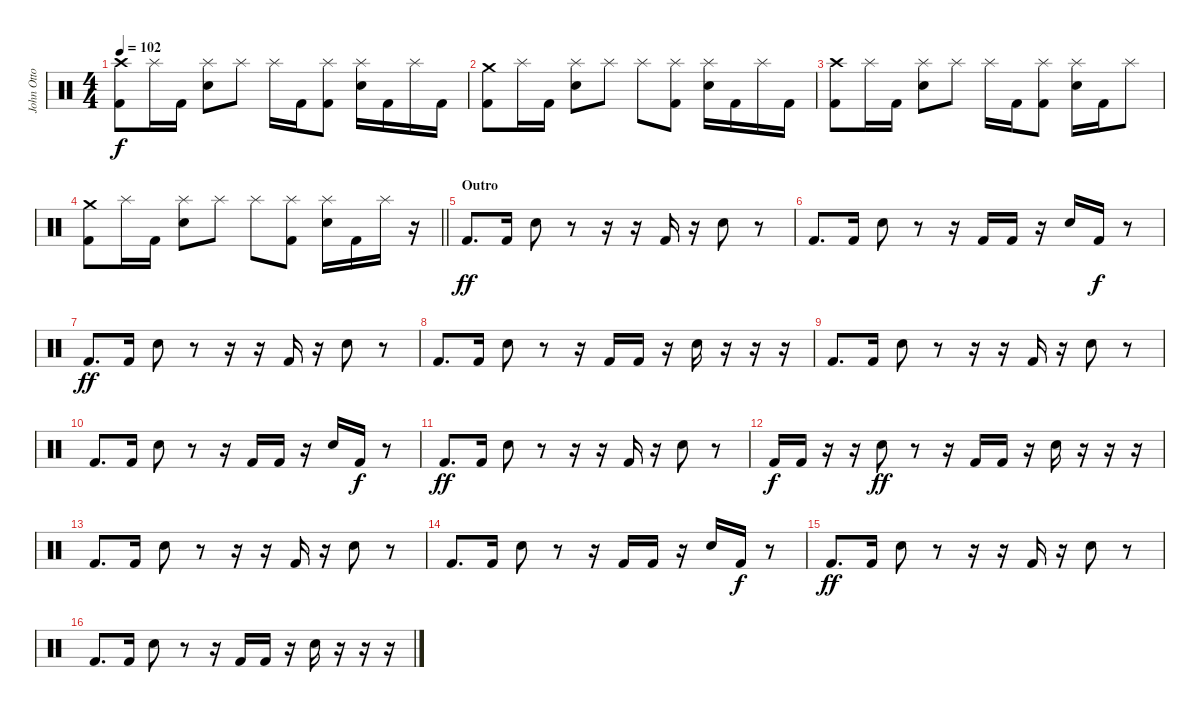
\track ("John Otto (Drums)" "John Otto ") {instrument percussion}
\staff {score}
\articulation defaults
\ts (4 4)
\tempo 102
\clef neutral
\ks c
("Crash high (hit)" "Kick (hit) 2").8{dy f} "Splash (hit)".16 "Kick (hit) 2".16 ("Splash (hit)" "Snare (hit) 2").8 "Splash (hit)".8 "Splash (hit)".16 "Kick (hit) 2".16 ("Splash (hit)" "Kick (hit) 2").8 ("Splash (hit)" "Snare (hit) 2").16 "Kick (hit) 2".16 "Splash (hit)".16 "Kick (hit) 2".16 |
("Crash medium (hit)" "Kick (hit) 2").8 "Splash (hit)".16 "Kick (hit) 2".16 ("Splash (hit)" "Snare (hit) 2").8 "Splash (hit)".8 "Splash (hit)".8 ("Splash (hit)" "Kick (hit) 2").8 ("Splash (hit)" "Snare (hit) 2").16 "Kick (hit) 2".16 "Splash (hit)".16 "Kick (hit) 2".16 |
("Crash high (hit)" "Kick (hit) 2").8 "Splash (hit)".16 "Kick (hit) 2".16 ("Splash (hit)" "Snare (hit) 2").8 "Splash (hit)".8 "Splash (hit)".16 "Kick (hit) 2".16 ("Splash (hit)" "Kick (hit) 2").8 ("Splash (hit)" "Snare (hit) 2").16 "Kick (hit) 2".16 "Splash (hit)".8 |
\barLineRight lightlight
("Crash medium (hit)" "Kick (hit) 2").8 "Splash (hit)".16 "Kick (hit) 2".16 ("Splash (hit)" "Snare (hit) 2").8 "Splash (hit)".8 "Splash (hit)".8 ("Splash (hit)" "Kick (hit) 2").8 ("Splash (hit)" "Snare (hit) 2").16 "Kick (hit) 2".16 "Splash (hit)".16 r.16 |
\section ("" "Outro")
"Kick (hit) 2".8{d dy ff} "Kick (hit) 2".16 "Snare (hit) 2".8 r.8 r.16 r.16 "Kick (hit) 2".16 r.16 "Snare (hit) 2".8 r.8 |
"Kick (hit) 2".8{d} "Kick (hit) 2".16 "Snare (hit) 2".8 r.8 r.16 "Kick (hit) 2".16 "Kick (hit) 2".16 r.16 "Snare (hit) 2".16 "Kick (hit) 2".16{dy f} r.8 |
"Kick (hit) 2".8{d dy ff} "Kick (hit) 2".16 "Snare (hit) 2".8 r.8 r.16 r.16 "Kick (hit) 2".16 r.16 "Snare (hit) 2".8 r.8 |
"Kick (hit) 2".8{d} "Kick (hit) 2".16 "Snare (hit) 2".8 r.8 r.16 "Kick (hit) 2".16 "Kick (hit) 2".16 r.16 "Snare (hit) 2".16 r.16 r.16 r.16 |
"Kick (hit) 2".8{d} "Kick (hit) 2".16 "Snare (hit) 2".8 r.8 r.16 r.16 "Kick (hit) 2".16 r.16 "Snare (hit) 2".8 r.8 |
"Kick (hit) 2".8{d} "Kick (hit) 2".16 "Snare (hit) 2".8 r.8 r.16 "Kick (hit) 2".16 "Kick (hit) 2".16 r.16 "Snare (hit) 2".16 "Kick (hit) 2".16{dy f} r.8 |
"Kick (hit) 2".8{d dy ff} "Kick (hit) 2".16 "Snare (hit) 2".8 r.8 r.16 r.16 "Kick (hit) 2".16 r.16 "Snare (hit) 2".8 r.8 |
"Kick (hit) 2".16{dy f} "Kick (hit) 2".16 r.16 r.16 "Snare (hit) 2".8{dy ff} r.8 r.16 "Kick (hit) 2".16 "Kick (hit) 2".16 r.16 "Snare (hit) 2".16 r.16 r.16 r.16 |
"Kick (hit) 2".8{d} "Kick (hit) 2".16 "Snare (hit) 2".8 r.8 r.16 r.16 "Kick (hit) 2".16 r.16 "Snare (hit) 2".8 r.8 |
"Kick (hit) 2".8{d} "Kick (hit) 2".16 "Snare (hit) 2".8 r.8 r.16 "Kick (hit) 2".16 "Kick (hit) 2".16 r.16 "Snare (hit) 2".16 "Kick (hit) 2".16{dy f} r.8 |
"Kick (hit) 2".8{d dy ff} "Kick (hit) 2".16 "Snare (hit) 2".8 r.8 r.16 r.16 "Kick (hit) 2".16 r.16 "Snare (hit) 2".8 r.8 |
"Kick (hit) 2".8{d} "Kick (hit) 2".16 "Snare (hit) 2".8 r.8 r.16 "Kick (hit) 2".16 "Kick (hit) 2".16 r.16 "Snare (hit) 2".16 r.16 r.16 r.16
